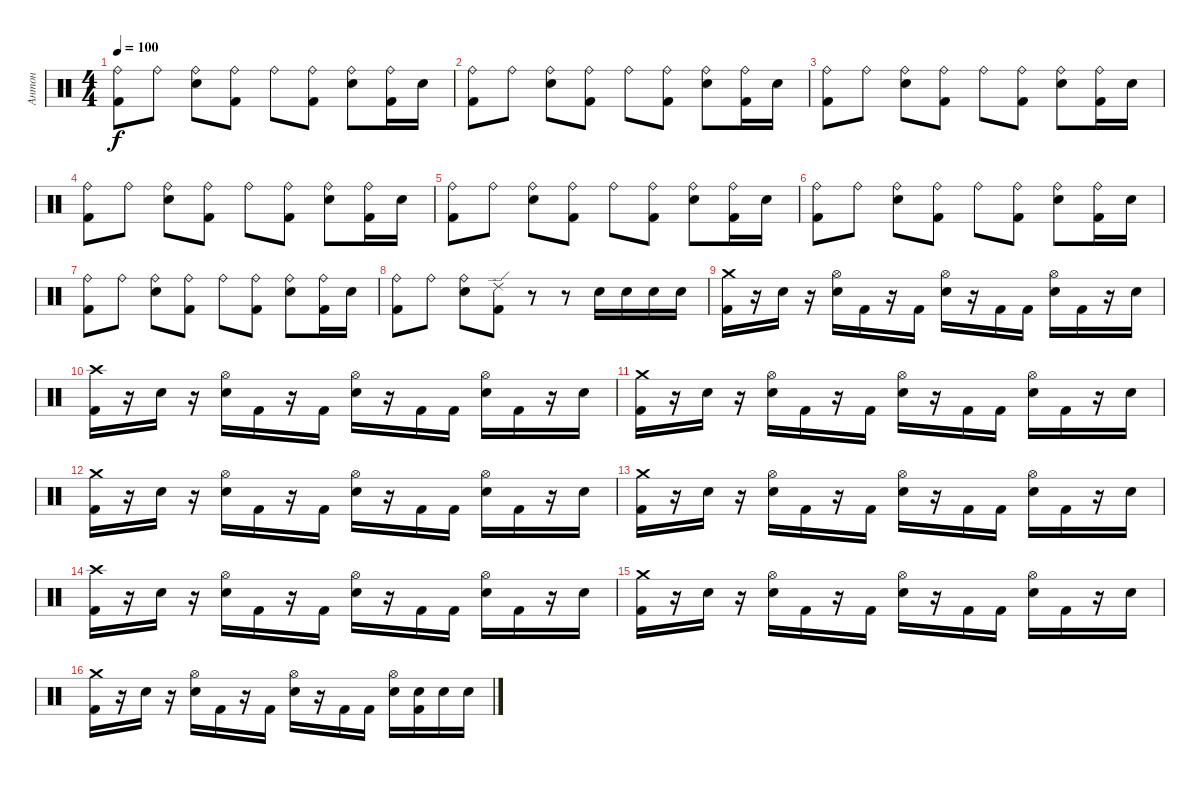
\track ("Антон" "Антон") {instrument percussion}
\staff {score}
\articulation defaults
\ts (4 4)
\tempo 100
\clef neutral
\ks c
("Ride (bell)" "Kick (hit) 2").8{dy f} "Ride (bell)".8 ("Ride (bell)" "Electric Snare (hit)").8 ("Ride (bell)" "Kick (hit) 2").8 "Ride (bell)".8 ("Ride (bell)" "Kick (hit) 2").8 ("Ride (bell)" "Electric Snare (hit)").8 ("Ride (bell)" "Kick (hit) 2").16 "Electric Snare (hit)".16 |
("Ride (bell)" "Kick (hit) 2").8 "Ride (bell)".8 ("Ride (bell)" "Electric Snare (hit)").8 ("Ride (bell)" "Kick (hit) 2").8 "Ride (bell)".8 ("Ride (bell)" "Kick (hit) 2").8 ("Ride (bell)" "Electric Snare (hit)").8 ("Ride (bell)" "Kick (hit) 2").16 "Electric Snare (hit)".16 |
("Ride (bell)" "Kick (hit) 2").8 "Ride (bell)".8 ("Ride (bell)" "Electric Snare (hit)").8 ("Ride (bell)" "Kick (hit) 2").8 "Ride (bell)".8 ("Ride (bell)" "Kick (hit) 2").8 ("Ride (bell)" "Electric Snare (hit)").8 ("Ride (bell)" "Kick (hit) 2").16 "Electric Snare (hit)".16 |
("Ride (bell)" "Kick (hit) 2").8 "Ride (bell)".8 ("Ride (bell)" "Electric Snare (hit)").8 ("Ride (bell)" "Kick (hit) 2").8 "Ride (bell)".8 ("Ride (bell)" "Kick (hit) 2").8 ("Ride (bell)" "Electric Snare (hit)").8 ("Ride (bell)" "Kick (hit) 2").16 "Electric Snare (hit)".16 |
("Ride (bell)" "Kick (hit) 2").8 "Ride (bell)".8 ("Ride (bell)" "Electric Snare (hit)").8 ("Ride (bell)" "Kick (hit) 2").8 "Ride (bell)".8 ("Ride (bell)" "Kick (hit) 2").8 ("Ride (bell)" "Electric Snare (hit)").8 ("Ride (bell)" "Kick (hit) 2").16 "Electric Snare (hit)".16 |
("Ride (bell)" "Kick (hit) 2").8 "Ride (bell)".8 ("Ride (bell)" "Electric Snare (hit)").8 ("Ride (bell)" "Kick (hit) 2").8 "Ride (bell)".8 ("Ride (bell)" "Kick (hit) 2").8 ("Ride (bell)" "Electric Snare (hit)").8 ("Ride (bell)" "Kick (hit) 2").16 "Electric Snare (hit)".16 |
("Ride (bell)" "Kick (hit) 2").8 "Ride (bell)".8 ("Ride (bell)" "Electric Snare (hit)").8 ("Ride (bell)" "Kick (hit) 2").8 "Ride (bell)".8 ("Ride (bell)" "Kick (hit) 2").8 ("Ride (bell)" "Electric Snare (hit)").8 ("Ride (bell)" "Kick (hit) 2").16 "Electric Snare (hit)".16 |
("Ride (bell)" "Kick (hit) 2").8 "Ride (bell)".8 ("Ride (bell)" "Electric Snare (hit)").8 ("Ride (edge) 2" "Kick (hit) 2").8 r.8 r.8 "Electric Snare (hit)".16 "Electric Snare (hit)".16 "Electric Snare (hit)".16 "Electric Snare (hit)".16 |
("Crash medium (hit)" "Kick (hit) 2").16 r.16 "Electric Snare (hit)".16 r.16 ("Hi-Hat (open)" "Electric Snare (hit)").16 "Kick (hit) 2".16 r.16 "Kick (hit) 2".16 ("Hi-Hat (open)" "Electric Snare (hit)").16 r.16 "Kick (hit) 2".16 "Kick (hit) 2".16 ("Hi-Hat (open)" "Electric Snare (hit)").16 "Kick (hit) 2".16 r.16 "Electric Snare (hit)".16 |
("Crash high (hit)" "Kick (hit) 2").16 r.16 "Electric Snare (hit)".16 r.16 ("Hi-Hat (open)" "Electric Snare (hit)").16 "Kick (hit) 2".16 r.16 "Kick (hit) 2".16 ("Hi-Hat (open)" "Electric Snare (hit)").16 r.16 "Kick (hit) 2".16 "Kick (hit) 2".16 ("Hi-Hat (open)" "Electric Snare (hit)").16 "Kick (hit) 2".16 r.16 "Electric Snare (hit)".16 |
("Crash medium (hit)" "Kick (hit) 2").16 r.16 "Electric Snare (hit)".16 r.16 ("Hi-Hat (open)" "Electric Snare (hit)").16 "Kick (hit) 2".16 r.16 "Kick (hit) 2".16 ("Hi-Hat (open)" "Electric Snare (hit)").16 r.16 "Kick (hit) 2".16 "Kick (hit) 2".16 ("Hi-Hat (open)" "Electric Snare (hit)").16 "Kick (hit) 2".16 r.16 "Electric Snare (hit)".16 |
("Crash medium (hit)" "Kick (hit) 2").16 r.16 "Electric Snare (hit)".16 r.16 ("Hi-Hat (open)" "Electric Snare (hit)").16 "Kick (hit) 2".16 r.16 "Kick (hit) 2".16 ("Hi-Hat (open)" "Electric Snare (hit)").16 r.16 "Kick (hit) 2".16 "Kick (hit) 2".16 ("Hi-Hat (open)" "Electric Snare (hit)").16 "Kick (hit) 2".16 r.16 "Electric Snare (hit)".16 |
("Crash medium (hit)" "Kick (hit) 2").16 r.16 "Electric Snare (hit)".16 r.16 ("Hi-Hat (open)" "Electric Snare (hit)").16 "Kick (hit) 2".16 r.16 "Kick (hit) 2".16 ("Hi-Hat (open)" "Electric Snare (hit)").16 r.16 "Kick (hit) 2".16 "Kick (hit) 2".16 ("Hi-Hat (open)" "Electric Snare (hit)").16 "Kick (hit) 2".16 r.16 "Electric Snare (hit)".16 |
("Crash high (hit)" "Kick (hit) 2").16 r.16 "Electric Snare (hit)".16 r.16 ("Hi-Hat (open)" "Electric Snare (hit)").16 "Kick (hit) 2".16 r.16 "Kick (hit) 2".16 ("Hi-Hat (open)" "Electric Snare (hit)").16 r.16 "Kick (hit) 2".16 "Kick (hit) 2".16 ("Hi-Hat (open)" "Electric Snare (hit)").16 "Kick (hit) 2".16 r.16 "Electric Snare (hit)".16 |
("Crash medium (hit)" "Kick (hit) 2").16 r.16 "Electric Snare (hit)".16 r.16 ("Hi-Hat (open)" "Electric Snare (hit)").16 "Kick (hit) 2".16 r.16 "Kick (hit) 2".16 ("Hi-Hat (open)" "Electric Snare (hit)").16 r.16 "Kick (hit) 2".16 "Kick (hit) 2".16 ("Hi-Hat (open)" "Electric Snare (hit)").16 "Kick (hit) 2".16 r.16 "Electric Snare (hit)".16 |
("Crash medium (hit)" "Kick (hit) 2").16 r.16 "Electric Snare (hit)".16 r.16 ("Hi-Hat (open)" "Electric Snare (hit)").16 "Kick (hit) 2".16 r.16 "Kick (hit) 2".16 ("Hi-Hat (open)" "Electric Snare (hit)").16 r.16 "Kick (hit) 2".16 "Kick (hit) 2".16 ("Hi-Hat (open)" "Electric Snare (hit)").16 ("Electric Snare (hit)" "Kick (hit) 2").16 "Electric Snare (hit)".16 "Electric Snare (hit)".16
